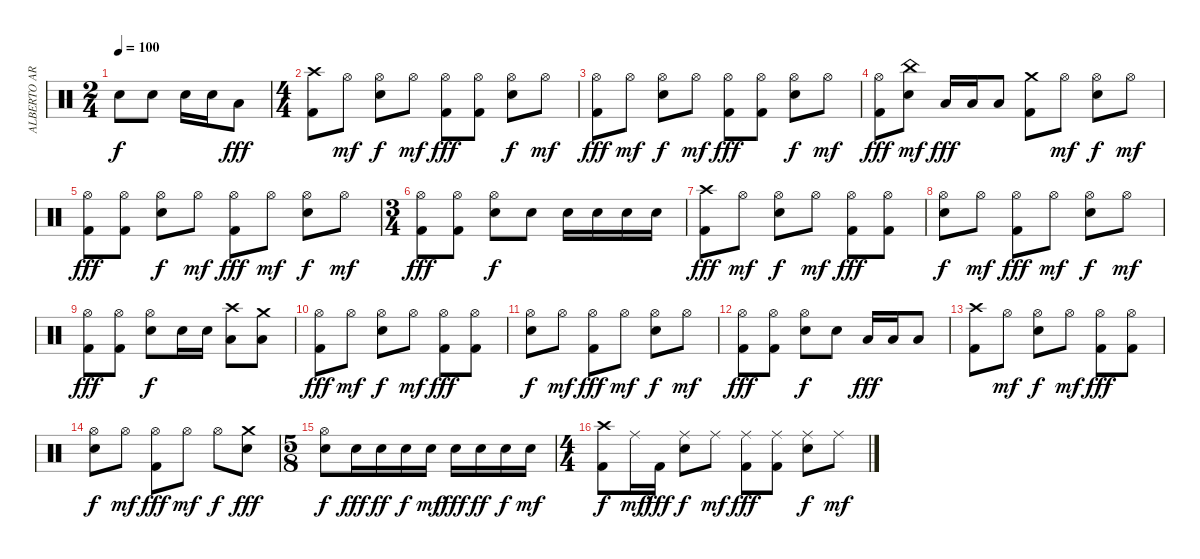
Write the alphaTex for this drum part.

\track ("ALBERTO ARDINES" "ALBERTO AR") {instrument percussion}
\staff {score}
\articulation defaults
\ts (2 4)
\tempo 100
\clef neutral
\ks c "Electric Snare (hit)".8{dy f} "Electric Snare (hit)".8 "Electric Snare (hit)".16 "Electric Snare (hit)".16 "Low Tom (hit)".8{dy fff}
|
\ts (4 4)
("Crash high (hit)" "Kick (hit) 2").8 "Hi-Hat (open)".8{dy mf} ("Hi-Hat (open)" "Electric Snare (hit)").8{dy f} "Hi-Hat (open)".8{dy mf} ("Hi-Hat (open)" "Kick (hit) 2").8{dy fff} ("Hi-Hat (open)" "Kick (hit) 2").8 ("Hi-Hat (open)" "Electric Snare (hit)").8{dy f} "Hi-Hat (open)".8{dy mf} |
("Hi-Hat (open)" "Kick (hit) 2").8{dy fff} "Hi-Hat (open)".8{dy mf} ("Hi-Hat (open)" "Electric Snare (hit)").8{dy f} "Hi-Hat (open)".8{dy mf} ("Hi-Hat (open)" "Kick (hit) 2").8{dy fff} ("Hi-Hat (open)" "Kick (hit) 2").8 ("Hi-Hat (open)" "Electric Snare (hit)").8{dy f} "Hi-Hat (open)".8{dy mf} |
("Hi-Hat (open)" "Kick (hit) 2").8{dy fff} ("China (hit)" "Electric Snare (hit)").8{dy mf} "Low Tom (hit)".16{dy fff} "Low Tom (hit)".16 "Low Tom (hit)".8 ("Crash medium (hit)" "Kick (hit) 2").8 "Hi-Hat (open)".8{dy mf} ("Hi-Hat (open)" "Electric Snare (hit)").8{dy f} "Hi-Hat (open)".8{dy mf} |
("Hi-Hat (open)" "Kick (hit) 2").8{dy fff} ("Hi-Hat (open)" "Kick (hit) 2").8 ("Hi-Hat (open)" "Electric Snare (hit)").8{dy f} "Hi-Hat (open)".8{dy mf} ("Hi-Hat (open)" "Kick (hit) 2").8{dy fff} "Hi-Hat (open)".8{dy mf} ("Hi-Hat (open)" "Electric Snare (hit)").8{dy f} "Hi-Hat (open)".8{dy mf} |
\ts (3 4)
("Hi-Hat (open)" "Kick (hit) 2").8{dy fff} ("Hi-Hat (open)" "Kick (hit) 2").8 ("Hi-Hat (open)" "Electric Snare (hit)").8{dy f} "Electric Snare (hit)".8 "Electric Snare (hit)".16 "Electric Snare (hit)".16 "Electric Snare (hit)".16 "Electric Snare (hit)".16 |
("Crash high (hit)" "Kick (hit) 2").8{dy fff} "Hi-Hat (open)".8{dy mf} ("Hi-Hat (open)" "Electric Snare (hit)").8{dy f} "Hi-Hat (open)".8{dy mf} ("Hi-Hat (open)" "Kick (hit) 2").8{dy fff} ("Hi-Hat (open)" "Kick (hit) 2").8 |
("Hi-Hat (open)" "Electric Snare (hit)").8{dy f} "Hi-Hat (open)".8{dy mf} ("Hi-Hat (open)" "Kick (hit) 2").8{dy fff} "Hi-Hat (open)".8{dy mf} ("Hi-Hat (open)" "Electric Snare (hit)").8{dy f} "Hi-Hat (open)".8{dy mf} |
("Hi-Hat (open)" "Kick (hit) 2").8{dy fff} ("Hi-Hat (open)" "Kick (hit) 2").8 ("Hi-Hat (open)" "Electric Snare (hit)").8{dy f} "Electric Snare (hit)".16 "Electric Snare (hit)".16 ("Crash high (hit)" "Low Tom (hit)").8 ("Crash medium (hit)" "Low Tom (hit)").8 |
("Hi-Hat (open)" "Kick (hit) 2").8{dy fff} "Hi-Hat (open)".8{dy mf} ("Hi-Hat (open)" "Electric Snare (hit)").8{dy f} "Hi-Hat (open)".8{dy mf} ("Hi-Hat (open)" "Kick (hit) 2").8{dy fff} ("Hi-Hat (open)" "Kick (hit) 2").8 |
("Hi-Hat (open)" "Electric Snare (hit)").8{dy f} "Hi-Hat (open)".8{dy mf} ("Hi-Hat (open)" "Kick (hit) 2").8{dy fff} "Hi-Hat (open)".8{dy mf} ("Hi-Hat (open)" "Electric Snare (hit)").8{dy f} "Hi-Hat (open)".8{dy mf} |
("Hi-Hat (open)" "Kick (hit) 2").8{dy fff} ("Hi-Hat (open)" "Kick (hit) 2").8 ("Hi-Hat (open)" "Electric Snare (hit)").8{dy f} "Electric Snare (hit)".8 "Low Tom (hit)".16{dy fff} "Low Tom (hit)".16 "Low Tom (hit)".8 |
("Crash high (hit)" "Kick (hit) 2").8 "Hi-Hat (open)".8{dy mf} ("Hi-Hat (open)" "Electric Snare (hit)").8{dy f} "Hi-Hat (open)".8{dy mf} ("Hi-Hat (open)" "Kick (hit) 2").8{dy fff} ("Hi-Hat (open)" "Kick (hit) 2").8 |
("Hi-Hat (open)" "Electric Snare (hit)").8{dy f} "Hi-Hat (open)".8{dy mf} ("Hi-Hat (open)" "Kick (hit) 2").8{dy fff} "Hi-Hat (open)".8{dy mf} "Hi-Hat (open)".8{dy f} ("Crash medium (hit)" "Electric Snare (hit)").8{dy fff} |
\ts (5 8)
("Hi-Hat (open)" "Electric Snare (hit)").8{dy f} "Electric Snare (hit)".16{dy fff} "Electric Snare (hit)".16{dy ff} "Electric Snare (hit)".16{dy f} "Electric Snare (hit)".16{dy mf} "Electric Snare (hit)".16{dy fff} "Electric Snare (hit)".16{dy ff} "Electric Snare (hit)".16{dy f} "Electric Snare (hit)".16{dy mf} |
\ts (4 4)
("Crash high (hit)" "Kick (hit) 2").8{dy f} "Ride (middle)".16{dy mf} "Kick (hit) 2".16{dy fff} ("Ride (middle)" "Electric Snare (hit)").8{dy f} "Ride (middle)".8{dy mf} ("Ride (middle)" "Kick (hit) 2").8{dy fff} ("Ride (middle)" "Kick (hit) 2").8 ("Ride (middle)" "Electric Snare (hit)").8{dy f} "Ride (middle)".8{dy mf}
